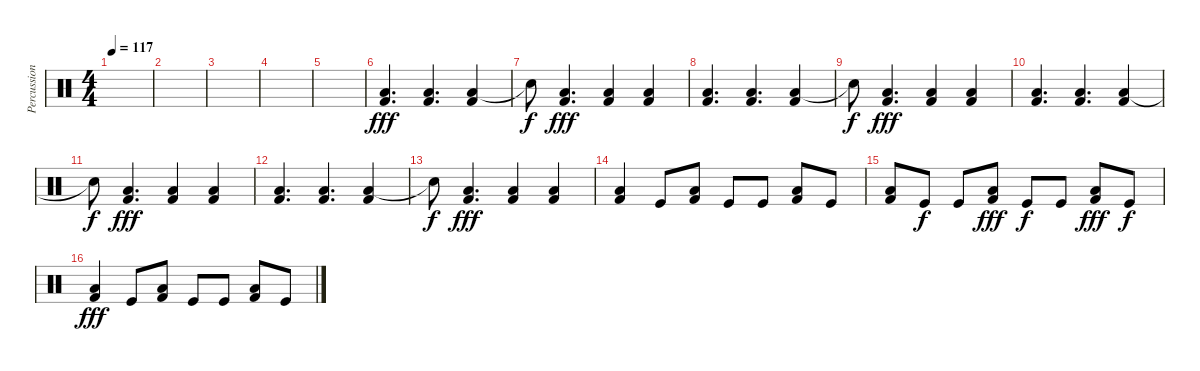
\track ("Percussioni" "Percussion") {instrument percussion}
\staff {score}
\articulation defaults
\ts (4 4)
\tempo 117
\clef neutral
\ks c
|
|
|
|
|
("Low Floor Tom (hit)" "Kick (hit) 2").4{d dy fff} ("Low Floor Tom (hit)" "Kick (hit) 2").4{d} ("Low Floor Tom (hit)" "Kick (hit) 2").4 |
"Snare (hit)"{t}.8{dy f} ("Low Floor Tom (hit)" "Kick (hit) 2").4{d dy fff} ("Low Floor Tom (hit)" "Kick (hit) 2").4 ("Low Floor Tom (hit)" "Kick (hit) 2").4 |
("Low Floor Tom (hit)" "Kick (hit) 2").4{d} ("Low Floor Tom (hit)" "Kick (hit) 2").4{d} ("Low Floor Tom (hit)" "Kick (hit) 2").4 |
"Snare (hit)"{t}.8{dy f} ("Low Floor Tom (hit)" "Kick (hit) 2").4{d dy fff} ("Low Floor Tom (hit)" "Kick (hit) 2").4 ("Low Floor Tom (hit)" "Kick (hit) 2").4 |
("Low Floor Tom (hit)" "Kick (hit) 2").4{d} ("Low Floor Tom (hit)" "Kick (hit) 2").4{d} ("Low Floor Tom (hit)" "Kick (hit) 2").4 |
"Snare (hit)"{t}.8{dy f} ("Low Floor Tom (hit)" "Kick (hit) 2").4{d dy fff} ("Low Floor Tom (hit)" "Kick (hit) 2").4 ("Low Floor Tom (hit)" "Kick (hit) 2").4 |
("Low Floor Tom (hit)" "Kick (hit) 2").4{d} ("Low Floor Tom (hit)" "Kick (hit) 2").4{d} ("Low Floor Tom (hit)" "Kick (hit) 2").4 |
"Snare (hit)"{t}.8{dy f} ("Low Floor Tom (hit)" "Kick (hit) 2").4{d dy fff} ("Low Floor Tom (hit)" "Kick (hit) 2").4 ("Low Floor Tom (hit)" "Kick (hit) 2").4 |
("Low Floor Tom (hit)" "Kick (hit) 2").4 "Kick (hit)".8 ("Low Floor Tom (hit)" "Kick (hit) 2").8 "Kick (hit)".8 "Kick (hit)".8 ("Low Floor Tom (hit)" "Kick (hit) 2").8 "Kick (hit)".8 |
("Low Floor Tom (hit)" "Kick (hit) 2").8 "Kick (hit)".8{dy f} "Kick (hit)".8 ("Low Floor Tom (hit)" "Kick (hit) 2").8{dy fff} "Kick (hit)".8{dy f} "Kick (hit)".8 ("Low Floor Tom (hit)" "Kick (hit) 2").8{dy fff} "Kick (hit)".8{dy f} |
("Low Floor Tom (hit)" "Kick (hit) 2").4{dy fff} "Kick (hit)".8 ("Low Floor Tom (hit)" "Kick (hit) 2").8 "Kick (hit)".8 "Kick (hit)".8 ("Low Floor Tom (hit)" "Kick (hit) 2").8 "Kick (hit)".8
